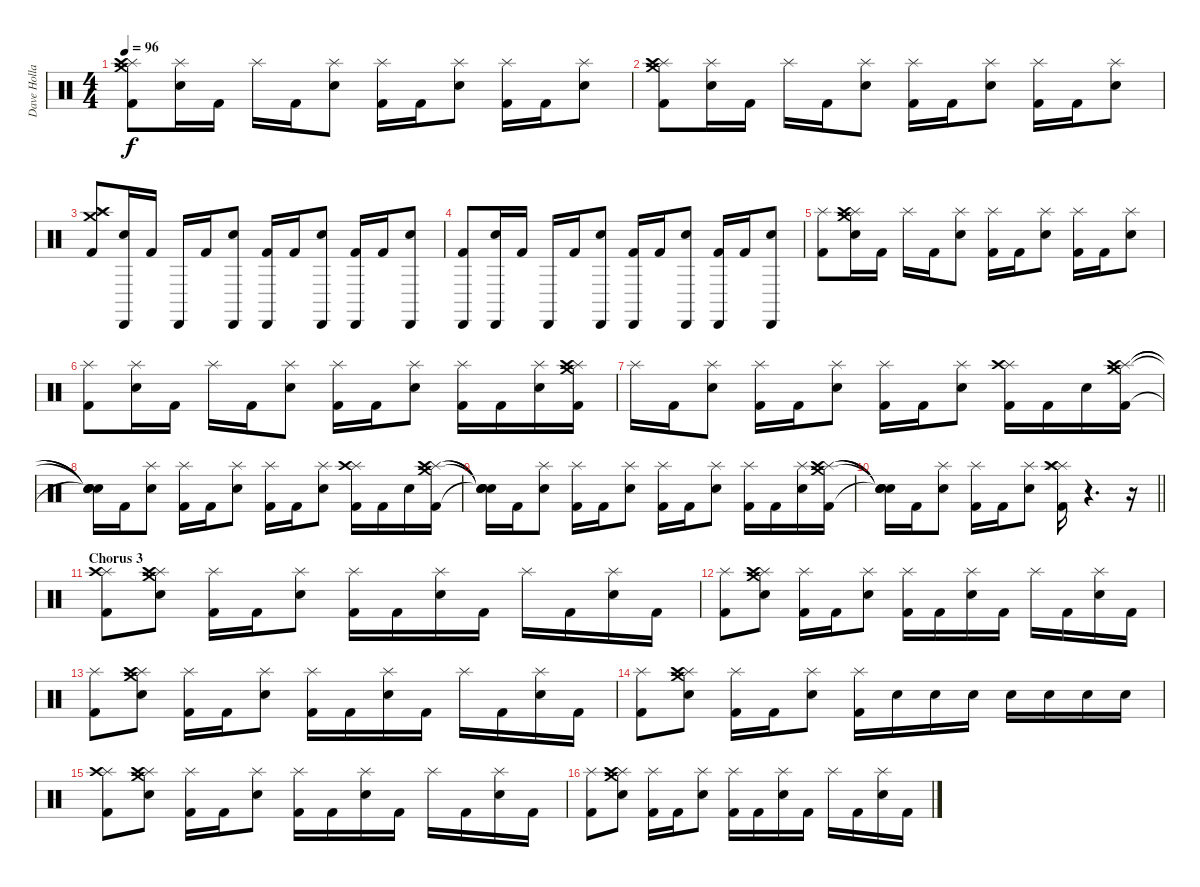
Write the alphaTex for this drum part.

\track ("Dave Holland" "Dave Holla") {instrument percussion}
\staff {score}
\articulation defaults
\ts (4 4)
\tempo 96
\clef neutral
\ks c
("Crash medium (hit)" "Splash (hit)" "Crash high (hit)" "Kick (hit) 2").8{dy f} ("Splash (hit)" "Snare (hit) 2").16 "Kick (hit) 2".16 "Splash (hit)".16 "Kick (hit) 2".16 ("Splash (hit)" "Snare (hit) 2").8 ("Splash (hit)" "Kick (hit) 2").16 "Kick (hit) 2".16 ("Splash (hit)" "Snare (hit) 2").8 ("Splash (hit)" "Kick (hit) 2").16 "Kick (hit) 2".16 ("Splash (hit)" "Snare (hit) 2").8 |
("Crash medium (hit)" "Splash (hit)" "Crash high (hit)" "Kick (hit) 2").8 ("Splash (hit)" "Snare (hit) 2").16 "Kick (hit) 2".16 "Splash (hit)".16 "Kick (hit) 2".16 ("Splash (hit)" "Snare (hit) 2").8 ("Splash (hit)" "Kick (hit) 2").16 "Kick (hit) 2".16 ("Splash (hit)" "Snare (hit) 2").8 ("Splash (hit)" "Kick (hit) 2").16 "Kick (hit) 2".16 ("Splash (hit)" "Snare (hit) 2").8 |
("Crash medium (hit)" "Splash (hit)" "Crash high (hit)" "Kick (hit) 2").8 ("Cabasa (hit)" "Snare (hit) 2").16 "Kick (hit) 2".16 "Cabasa (hit)".16 "Kick (hit) 2".16 ("Cabasa (hit)" "Snare (hit) 2").8 ("Cabasa (hit)" "Kick (hit) 2").16 "Kick (hit) 2".16 ("Cabasa (hit)" "Snare (hit) 2").8 ("Cabasa (hit)" "Kick (hit) 2").16 "Kick (hit) 2".16 ("Cabasa (hit)" "Snare (hit) 2").8 |
("Cabasa (hit)" "Kick (hit) 2").8 ("Cabasa (hit)" "Snare (hit) 2").16 "Kick (hit) 2".16 "Cabasa (hit)".16 "Kick (hit) 2".16 ("Cabasa (hit)" "Snare (hit) 2").8 ("Cabasa (hit)" "Kick (hit) 2").16 "Kick (hit) 2".16 ("Cabasa (hit)" "Snare (hit) 2").8 ("Cabasa (hit)" "Kick (hit) 2").16 "Kick (hit) 2".16 ("Cabasa (hit)" "Snare (hit) 2").8 |
("Splash (hit)" "Kick (hit) 2").8 ("Crash medium (hit)" "Splash (hit)" "Crash high (hit)" "Snare (hit) 2").16 "Kick (hit) 2".16 "Splash (hit)".16 "Kick (hit) 2".16 ("Splash (hit)" "Snare (hit) 2").8 ("Splash (hit)" "Kick (hit) 2").16 "Kick (hit) 2".16 ("Splash (hit)" "Snare (hit) 2").8 ("Splash (hit)" "Kick (hit) 2").16 "Kick (hit) 2".16 ("Splash (hit)" "Snare (hit) 2").8 |
("Splash (hit)" "Kick (hit) 2").8 ("Splash (hit)" "Snare (hit) 2").16 "Kick (hit) 2".16 "Splash (hit)".16 "Kick (hit) 2".16 ("Splash (hit)" "Snare (hit) 2").8 ("Splash (hit)" "Kick (hit) 2").16 "Kick (hit) 2".16 ("Splash (hit)" "Snare (hit) 2").8 ("Splash (hit)" "Kick (hit) 2").16 "Kick (hit) 2".16 ("Splash (hit)" "Snare (hit) 2").16 ("Crash medium (hit)" "Splash (hit)" "Crash high (hit)" "Kick (hit) 2").16 |
"Splash (hit)".16 "Kick (hit) 2".16 ("Splash (hit)" "Snare (hit) 2").8 ("Splash (hit)" "Kick (hit) 2").16 "Kick (hit) 2".16 ("Splash (hit)" "Snare (hit) 2").8 ("Splash (hit)" "Kick (hit) 2").16 "Kick (hit) 2".16 ("Splash (hit)" "Snare (hit) 2").8 ("Splash (hit)" "Crash high (hit)" "Kick (hit) 2").16 "Kick (hit) 2".16 "Snare (hit) 2".16 ("Crash medium (hit)" "Splash (hit)" "Crash high (hit)" "Kick (hit) 2").16 |
("Snare (hit)"{t} "Snare (hit)"{t} "Snare (hit)"{t} "Snare (hit)"{t}).16 "Kick (hit) 2".16 ("Splash (hit)" "Snare (hit) 2").8 ("Splash (hit)" "Kick (hit) 2").16 "Kick (hit) 2".16 ("Splash (hit)" "Snare (hit) 2").8 ("Splash (hit)" "Kick (hit) 2").16 "Kick (hit) 2".16 ("Splash (hit)" "Snare (hit) 2").8 ("Splash (hit)" "Crash high (hit)" "Kick (hit) 2").16 "Kick (hit) 2".16 "Snare (hit) 2".16 ("Crash medium (hit)" "Splash (hit)" "Crash high (hit)" "Kick (hit) 2").16 |
("Snare (hit)"{t} "Snare (hit)"{t} "Snare (hit)"{t} "Snare (hit)"{t}).16 "Kick (hit) 2".16 ("Splash (hit)" "Snare (hit) 2").8 ("Splash (hit)" "Kick (hit) 2").16 "Kick (hit) 2".16 ("Splash (hit)" "Snare (hit) 2").8 ("Splash (hit)" "Kick (hit) 2").16 "Kick (hit) 2".16 ("Splash (hit)" "Snare (hit) 2").8 ("Splash (hit)" "Kick (hit) 2").16 "Kick (hit) 2".16 ("Splash (hit)" "Snare (hit) 2").16 ("Crash medium (hit)" "Splash (hit)" "Crash high (hit)" "Kick (hit) 2").16 |
\barLineRight lightlight
("Snare (hit)"{t} "Snare (hit)"{t} "Snare (hit)"{t} "Snare (hit)"{t}).16 "Kick (hit) 2".16 ("Splash (hit)" "Snare (hit) 2").8 ("Splash (hit)" "Kick (hit) 2").16 "Kick (hit) 2".16 ("Splash (hit)" "Snare (hit) 2").8 ("Splash (hit)" "Splash (hit)" "Crash high (hit)" "Kick (hit) 2").16 r.4{d} r.16 |
\section ("" "Chorus 3")
("Splash (hit)" "Crash high (hit)" "Kick (hit) 2").8 ("Crash medium (hit)" "Splash (hit)" "Crash high (hit)" "Snare (hit) 2").8 ("Splash (hit)" "Kick (hit) 2").16 "Kick (hit) 2".16 ("Splash (hit)" "Snare (hit) 2").8 ("Splash (hit)" "Kick (hit) 2").16 "Kick (hit) 2".16 ("Splash (hit)" "Snare (hit) 2").16 "Kick (hit) 2".16 "Splash (hit)".16 "Kick (hit) 2".16 ("Splash (hit)" "Snare (hit) 2").16 "Kick (hit) 2".16 |
("Splash (hit)" "Kick (hit) 2").8 ("Crash medium (hit)" "Splash (hit)" "Crash high (hit)" "Snare (hit) 2").8 ("Splash (hit)" "Kick (hit) 2").16 "Kick (hit) 2".16 ("Splash (hit)" "Snare (hit) 2").8 ("Splash (hit)" "Kick (hit) 2").16 "Kick (hit) 2".16 ("Splash (hit)" "Snare (hit) 2").16 "Kick (hit) 2".16 "Splash (hit)".16 "Kick (hit) 2".16 ("Splash (hit)" "Snare (hit) 2").16 "Kick (hit) 2".16 |
("Splash (hit)" "Kick (hit) 2").8 ("Crash medium (hit)" "Splash (hit)" "Crash high (hit)" "Snare (hit) 2").8 ("Splash (hit)" "Kick (hit) 2").16 "Kick (hit) 2".16 ("Splash (hit)" "Snare (hit) 2").8 ("Splash (hit)" "Kick (hit) 2").16 "Kick (hit) 2".16 ("Splash (hit)" "Snare (hit) 2").16 "Kick (hit) 2".16 "Splash (hit)".16 "Kick (hit) 2".16 ("Splash (hit)" "Snare (hit) 2").16 "Kick (hit) 2".16 |
("Splash (hit)" "Kick (hit) 2").8 ("Crash medium (hit)" "Splash (hit)" "Crash high (hit)" "Snare (hit) 2").8 ("Splash (hit)" "Kick (hit) 2").16 "Kick (hit) 2".16 ("Splash (hit)" "Snare (hit) 2").8 ("Splash (hit)" "Kick (hit) 2").16 "Snare (hit) 2".16 "Snare (hit) 2".16 "Snare (hit) 2".16 "Snare (hit) 2".16 "Snare (hit) 2".16 "Snare (hit) 2".16 "Snare (hit) 2".16 |
("Splash (hit)" "Crash high (hit)" "Kick (hit) 2").8 ("Crash medium (hit)" "Splash (hit)" "Crash high (hit)" "Snare (hit) 2").8 ("Splash (hit)" "Kick (hit) 2").16 "Kick (hit) 2".16 ("Splash (hit)" "Snare (hit) 2").8 ("Splash (hit)" "Kick (hit) 2").16 "Kick (hit) 2".16 ("Splash (hit)" "Snare (hit) 2").16 "Kick (hit) 2".16 "Splash (hit)".16 "Kick (hit) 2".16 ("Splash (hit)" "Snare (hit) 2").16 "Kick (hit) 2".16 |
("Splash (hit)" "Kick (hit) 2").8 ("Crash medium (hit)" "Splash (hit)" "Crash high (hit)" "Snare (hit) 2").8 ("Splash (hit)" "Kick (hit) 2").16 "Kick (hit) 2".16 ("Splash (hit)" "Snare (hit) 2").8 ("Splash (hit)" "Kick (hit) 2").16 "Kick (hit) 2".16 ("Splash (hit)" "Snare (hit) 2").16 "Kick (hit) 2".16 "Splash (hit)".16 "Kick (hit) 2".16 ("Splash (hit)" "Snare (hit) 2").16 "Kick (hit) 2".16
